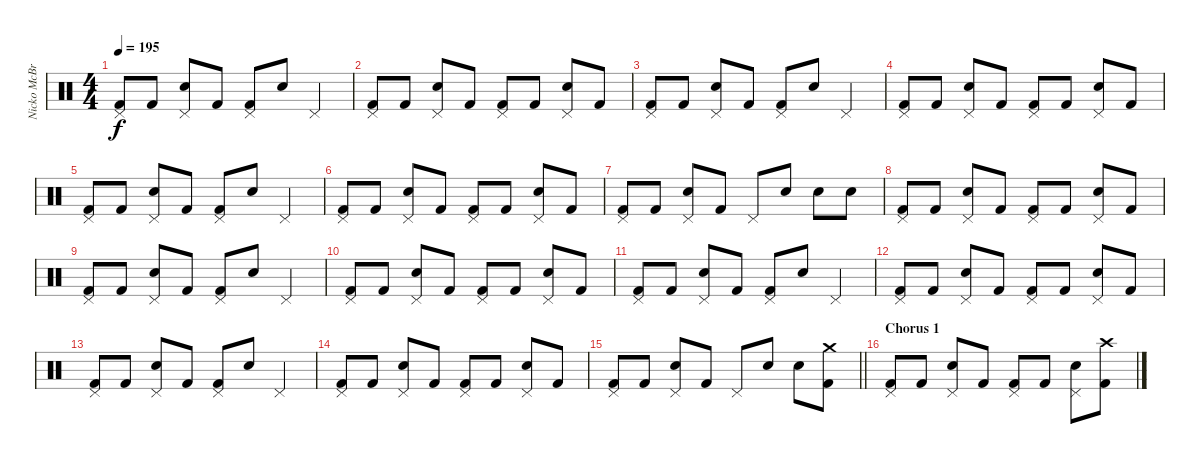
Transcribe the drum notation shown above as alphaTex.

\track ("Nicko McBrain" "Nicko McBr") {instrument percussion}
\staff {score}
\articulation defaults
\ts (4 4)
\tempo 195
\clef neutral
\ks c
("Pedal Hi-Hat (hit)" "Kick (hit) 2").8{dy f} "Kick (hit) 2".8 ("Pedal Hi-Hat (hit)" "Snare (hit) 2").8 "Kick (hit) 2".8 ("Pedal Hi-Hat (hit)" "Kick (hit) 2").8 "Snare (hit) 2".8 "Pedal Hi-Hat (hit)".4 |
("Pedal Hi-Hat (hit)" "Kick (hit) 2").8 "Kick (hit) 2".8 ("Pedal Hi-Hat (hit)" "Snare (hit) 2").8 "Kick (hit) 2".8 ("Pedal Hi-Hat (hit)" "Kick (hit) 2").8 "Kick (hit) 2".8 ("Pedal Hi-Hat (hit)" "Snare (hit) 2").8 "Kick (hit) 2".8 |
("Pedal Hi-Hat (hit)" "Kick (hit) 2").8 "Kick (hit) 2".8 ("Pedal Hi-Hat (hit)" "Snare (hit) 2").8 "Kick (hit) 2".8 ("Pedal Hi-Hat (hit)" "Kick (hit) 2").8 "Snare (hit) 2".8 "Pedal Hi-Hat (hit)".4 |
("Pedal Hi-Hat (hit)" "Kick (hit) 2").8 "Kick (hit) 2".8 ("Pedal Hi-Hat (hit)" "Snare (hit) 2").8 "Kick (hit) 2".8 ("Pedal Hi-Hat (hit)" "Kick (hit) 2").8 "Kick (hit) 2".8 ("Pedal Hi-Hat (hit)" "Snare (hit) 2").8 "Kick (hit) 2".8 |
("Pedal Hi-Hat (hit)" "Kick (hit) 2").8 "Kick (hit) 2".8 ("Pedal Hi-Hat (hit)" "Snare (hit) 2").8 "Kick (hit) 2".8 ("Pedal Hi-Hat (hit)" "Kick (hit) 2").8 "Snare (hit) 2".8 "Pedal Hi-Hat (hit)".4 |
("Pedal Hi-Hat (hit)" "Kick (hit) 2").8 "Kick (hit) 2".8 ("Pedal Hi-Hat (hit)" "Snare (hit) 2").8 "Kick (hit) 2".8 ("Pedal Hi-Hat (hit)" "Kick (hit) 2").8 "Kick (hit) 2".8 ("Pedal Hi-Hat (hit)" "Snare (hit) 2").8 "Kick (hit) 2".8 |
("Pedal Hi-Hat (hit)" "Kick (hit) 2").8 "Kick (hit) 2".8 ("Pedal Hi-Hat (hit)" "Snare (hit) 2").8 "Kick (hit) 2".8 "Pedal Hi-Hat (hit)".8 "Snare (hit) 2".8 "Snare (hit) 2".8 "Snare (hit) 2".8 |
("Pedal Hi-Hat (hit)" "Kick (hit) 2").8 "Kick (hit) 2".8 ("Pedal Hi-Hat (hit)" "Snare (hit) 2").8 "Kick (hit) 2".8 ("Pedal Hi-Hat (hit)" "Kick (hit) 2").8 "Kick (hit) 2".8 ("Pedal Hi-Hat (hit)" "Snare (hit) 2").8 "Kick (hit) 2".8 |
("Pedal Hi-Hat (hit)" "Kick (hit) 2").8 "Kick (hit) 2".8 ("Pedal Hi-Hat (hit)" "Snare (hit) 2").8 "Kick (hit) 2".8 ("Pedal Hi-Hat (hit)" "Kick (hit) 2").8 "Snare (hit) 2".8 "Pedal Hi-Hat (hit)".4 |
("Pedal Hi-Hat (hit)" "Kick (hit) 2").8 "Kick (hit) 2".8 ("Pedal Hi-Hat (hit)" "Snare (hit) 2").8 "Kick (hit) 2".8 ("Pedal Hi-Hat (hit)" "Kick (hit) 2").8 "Kick (hit) 2".8 ("Pedal Hi-Hat (hit)" "Snare (hit) 2").8 "Kick (hit) 2".8 |
("Pedal Hi-Hat (hit)" "Kick (hit) 2").8 "Kick (hit) 2".8 ("Pedal Hi-Hat (hit)" "Snare (hit) 2").8 "Kick (hit) 2".8 ("Pedal Hi-Hat (hit)" "Kick (hit) 2").8 "Snare (hit) 2".8 "Pedal Hi-Hat (hit)".4 |
("Pedal Hi-Hat (hit)" "Kick (hit) 2").8 "Kick (hit) 2".8 ("Pedal Hi-Hat (hit)" "Snare (hit) 2").8 "Kick (hit) 2".8 ("Pedal Hi-Hat (hit)" "Kick (hit) 2").8 "Kick (hit) 2".8 ("Pedal Hi-Hat (hit)" "Snare (hit) 2").8 "Kick (hit) 2".8 |
("Pedal Hi-Hat (hit)" "Kick (hit) 2").8 "Kick (hit) 2".8 ("Pedal Hi-Hat (hit)" "Snare (hit) 2").8 "Kick (hit) 2".8 ("Pedal Hi-Hat (hit)" "Kick (hit) 2").8 "Snare (hit) 2".8 "Pedal Hi-Hat (hit)".4 |
("Pedal Hi-Hat (hit)" "Kick (hit) 2").8 "Kick (hit) 2".8 ("Pedal Hi-Hat (hit)" "Snare (hit) 2").8 "Kick (hit) 2".8 ("Pedal Hi-Hat (hit)" "Kick (hit) 2").8 "Kick (hit) 2".8 ("Pedal Hi-Hat (hit)" "Snare (hit) 2").8 "Kick (hit) 2".8 |
\barLineRight lightlight
("Pedal Hi-Hat (hit)" "Kick (hit) 2").8 "Kick (hit) 2".8 ("Pedal Hi-Hat (hit)" "Snare (hit) 2").8 "Kick (hit) 2".8 "Pedal Hi-Hat (hit)".8 "Snare (hit) 2".8 "Snare (hit) 2".8 ("Crash medium (hit)" "Kick (hit) 2").8 |
\section ("" "Chorus 1")
("Pedal Hi-Hat (hit)" "Kick (hit) 2").8 "Kick (hit) 2".8 ("Pedal Hi-Hat (hit)" "Snare (hit) 2").8 "Kick (hit) 2".8 ("Pedal Hi-Hat (hit)" "Kick (hit) 2").8 "Kick (hit) 2".8 ("Pedal Hi-Hat (hit)" "Snare (hit) 2").8 ("Crash high (hit)" "Kick (hit) 2").8
